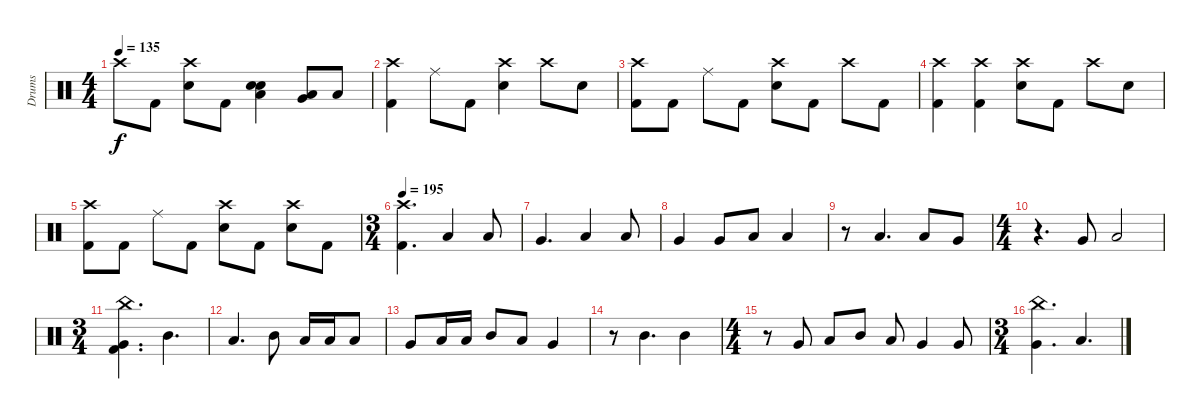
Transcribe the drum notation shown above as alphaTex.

\track ("Drums" "Drums") {instrument percussion}
\staff {score}
\articulation defaults
\ts (4 4)
\tempo 135
\clef neutral
\ks c "Crash high (hit)".8{dy f} "Kick (hit) 2".8
("Crash high (hit)" "Electric Snare (hit)").8 "Kick (hit) 2".8 ("Low Floor Tom (hit)" "Electric Snare (hit)" "Snare (hit) 2").4 ("Very Low Tom (hit)" "Low Floor Tom (hit)").8 "Low Floor Tom (hit)".8 |
("Crash high (hit)" "Kick (hit) 2").4 "Ride (middle)".8 "Kick (hit) 2".8 ("Crash high (hit)" "Electric Snare (hit)").4 "Crash high (hit)".8 "Electric Snare (hit)".8 |
("Crash high (hit)" "Kick (hit) 2").8 "Kick (hit) 2".8 "Ride (middle)".8 "Kick (hit) 2".8 ("Crash high (hit)" "Electric Snare (hit)").8 "Kick (hit) 2".8 "Crash high (hit)".8 "Kick (hit) 2".8 |
("Crash high (hit)" "Kick (hit) 2").4 ("Crash high (hit)" "Kick (hit) 2").4 ("Crash high (hit)" "Electric Snare (hit)").8 "Kick (hit) 2".8 "Crash high (hit)".8 "Electric Snare (hit)".8 |
("Crash high (hit)" "Kick (hit) 2").8 "Kick (hit) 2".8 "Ride (middle)".8 "Kick (hit) 2".8 ("Crash high (hit)" "Electric Snare (hit)").8 "Kick (hit) 2".8 ("Crash high (hit)" "Electric Snare (hit)").8 "Kick (hit) 2".8 |
\ts (3 4)
\tempo 195
("Crash high (hit)" "Kick (hit) 2").4{d} "Low Floor Tom (hit)".4 "Low Floor Tom (hit)".8 |
"Very Low Tom (hit)".4{d} "Low Floor Tom (hit)".4 "Low Tom (hit)".8 |
"Very Low Tom (hit)".4 "Very Low Tom (hit)".8 "Low Floor Tom (hit)".8 "Low Tom (hit)".4 |
r.8 "Low Floor Tom (hit)".4{d} "Low Floor Tom (hit)".8 "Very Low Tom (hit)".8 |
\ts (4 4)
r.4{d} "Very Low Tom (hit)".8 "Low Floor Tom (hit)".2 |
\ts (3 4)
("China (hit)" "Very Low Tom (hit)" "Kick (hit) 2").4{d} "Mid Tom (hit)".4{d} |
"Low Tom (hit)".4{d} "Mid Tom (hit)".8 "Low Floor Tom (hit)".16 "Low Floor Tom (hit)".16 "Low Tom (hit)".8 |
"Very Low Tom (hit)".8 "Low Floor Tom (hit)".16 "Low Floor Tom (hit)".16 "Mid Tom (hit)".8 "Low Tom (hit)".8 "Very Low Tom (hit)".4 |
r.8 "Mid Tom (hit)".4{d} "Mid Tom (hit)".4 |
\ts (4 4)
r.8 "Very Low Tom (hit)".8 "Low Tom (hit)".8 "Mid Tom (hit)".8 "Low Tom (hit)".8 "Very Low Tom (hit)".4 "Very Low Tom (hit)".8 |
\ts (3 4)
("China (hit)" "Very Low Tom (hit)").4{d} "Low Tom (hit)".4{d}
